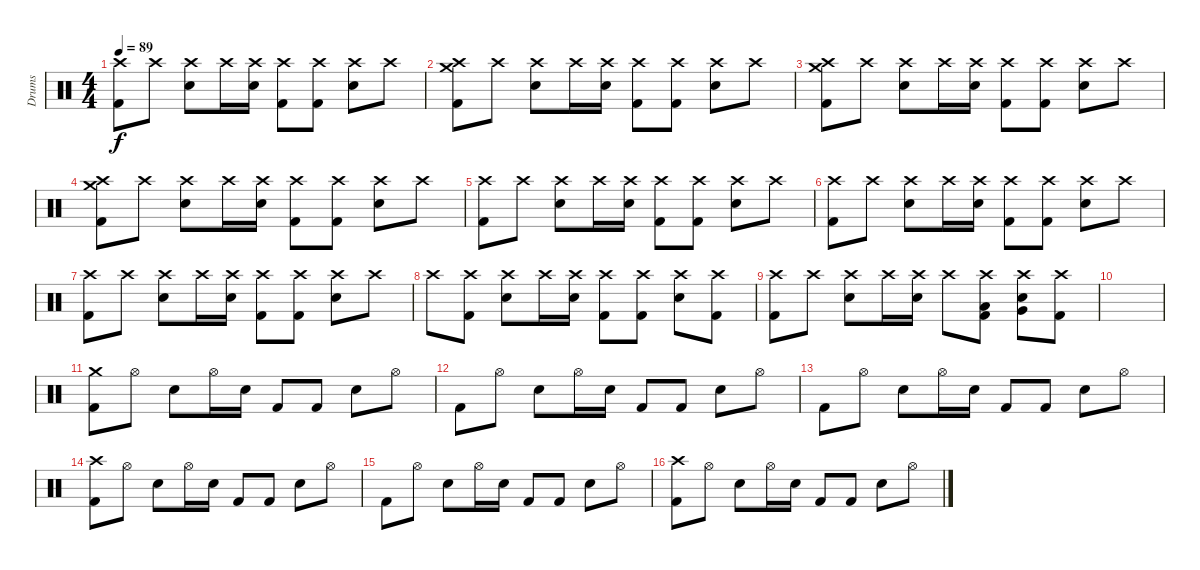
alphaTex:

\track ("Drums" "Drums") {instrument percussion}
\staff {score}
\articulation defaults
\ts (4 4)
\tempo 89
\clef neutral
\ks c
("Crash high (hit)" "Kick (hit) 2").8{dy f} "Crash high (hit)".8 ("Crash high (hit)" "Electric Snare (hit)").8 "Crash high (hit)".16 ("Crash high (hit)" "Electric Snare (hit)").16 ("Crash high (hit)" "Kick (hit) 2").8 ("Crash high (hit)" "Kick (hit) 2").8 ("Crash high (hit)" "Electric Snare (hit)").8 "Crash high (hit)".8 |
("Crash high (hit)" "Crash medium (hit)" "Kick (hit) 2").8 "Crash high (hit)".8 ("Crash high (hit)" "Electric Snare (hit)").8 "Crash high (hit)".16 ("Crash high (hit)" "Electric Snare (hit)").16 ("Crash high (hit)" "Kick (hit) 2").8 ("Crash high (hit)" "Kick (hit) 2").8 ("Crash high (hit)" "Electric Snare (hit)").8 "Crash high (hit)".8 |
("Crash high (hit)" "Crash medium (hit)" "Kick (hit) 2").8 "Crash high (hit)".8 ("Crash high (hit)" "Electric Snare (hit)").8 "Crash high (hit)".16 ("Crash high (hit)" "Electric Snare (hit)").16 ("Crash high (hit)" "Kick (hit) 2").8 ("Crash high (hit)" "Kick (hit) 2").8 ("Crash high (hit)" "Electric Snare (hit)").8 "Crash high (hit)".8 |
("Crash high (hit)" "Crash medium (hit)" "Kick (hit) 2").8 "Crash high (hit)".8 ("Crash high (hit)" "Electric Snare (hit)").8 "Crash high (hit)".16 ("Crash high (hit)" "Electric Snare (hit)").16 ("Crash high (hit)" "Kick (hit) 2").8 ("Crash high (hit)" "Kick (hit) 2").8 ("Crash high (hit)" "Electric Snare (hit)").8 "Crash high (hit)".8 |
("Crash high (hit)" "Kick (hit) 2").8 "Crash high (hit)".8 ("Crash high (hit)" "Electric Snare (hit)").8 "Crash high (hit)".16 ("Crash high (hit)" "Electric Snare (hit)").16 ("Crash high (hit)" "Kick (hit) 2").8 ("Crash high (hit)" "Kick (hit) 2").8 ("Crash high (hit)" "Electric Snare (hit)").8 "Crash high (hit)".8 |
("Crash high (hit)" "Kick (hit) 2").8 "Crash high (hit)".8 ("Crash high (hit)" "Electric Snare (hit)").8 "Crash high (hit)".16 ("Crash high (hit)" "Electric Snare (hit)").16 ("Crash high (hit)" "Kick (hit) 2").8 ("Crash high (hit)" "Kick (hit) 2").8 ("Crash high (hit)" "Electric Snare (hit)").8 "Crash high (hit)".8 |
("Crash high (hit)" "Kick (hit) 2").8 "Crash high (hit)".8 ("Crash high (hit)" "Electric Snare (hit)").8 "Crash high (hit)".16 ("Crash high (hit)" "Electric Snare (hit)").16 ("Crash high (hit)" "Kick (hit) 2").8 ("Crash high (hit)" "Kick (hit) 2").8 ("Crash high (hit)" "Electric Snare (hit)").8 "Crash high (hit)".8 |
"Crash high (hit)".8 ("Crash high (hit)" "Kick (hit) 2").8 ("Crash high (hit)" "Electric Snare (hit)").8 "Crash high (hit)".16 ("Crash high (hit)" "Electric Snare (hit)").16 ("Crash high (hit)" "Kick (hit) 2").8 ("Crash high (hit)" "Kick (hit) 2").8 ("Crash high (hit)" "Electric Snare (hit)").8 ("Crash high (hit)" "Kick (hit) 2").8 |
("Crash high (hit)" "Kick (hit) 2").8 "Crash high (hit)".8 ("Crash high (hit)" "Electric Snare (hit)").8 "Crash high (hit)".16 ("Crash high (hit)" "Electric Snare (hit)").16 "Crash high (hit)".8 ("Crash high (hit)" "Low Tom (hit)" "Kick (hit) 2").8 ("Crash high (hit)" "Very Low Tom (hit)" "Electric Snare (hit)").8 ("Crash high (hit)" "Kick (hit) 2").8 |
|
("Crash medium (hit)" "Kick (hit) 2").8 "Hi-Hat (open)".8 "Electric Snare (hit)".8 "Hi-Hat (open)".16 "Electric Snare (hit)".16 "Kick (hit) 2".8 "Kick (hit) 2".8 "Electric Snare (hit)".8 "Hi-Hat (open)".8 |
"Kick (hit) 2".8 "Hi-Hat (open)".8 "Electric Snare (hit)".8 "Hi-Hat (open)".16 "Electric Snare (hit)".16 "Kick (hit) 2".8 "Kick (hit) 2".8 "Electric Snare (hit)".8 "Hi-Hat (open)".8 |
"Kick (hit) 2".8 "Hi-Hat (open)".8 "Electric Snare (hit)".8 "Hi-Hat (open)".16 "Electric Snare (hit)".16 "Kick (hit) 2".8 "Kick (hit) 2".8 "Electric Snare (hit)".8 "Hi-Hat (open)".8 |
("Crash high (hit)" "Kick (hit) 2").8 "Hi-Hat (open)".8 "Electric Snare (hit)".8 "Hi-Hat (open)".16 "Electric Snare (hit)".16 "Kick (hit) 2".8 "Kick (hit) 2".8 "Electric Snare (hit)".8 "Hi-Hat (open)".8 |
"Kick (hit) 2".8 "Hi-Hat (open)".8 "Electric Snare (hit)".8 "Hi-Hat (open)".16 "Electric Snare (hit)".16 "Kick (hit) 2".8 "Kick (hit) 2".8 "Electric Snare (hit)".8 "Hi-Hat (open)".8 |
("Crash high (hit)" "Kick (hit) 2").8 "Hi-Hat (open)".8 "Electric Snare (hit)".8 "Hi-Hat (open)".16 "Electric Snare (hit)".16 "Kick (hit) 2".8 "Kick (hit) 2".8 "Electric Snare (hit)".8 "Hi-Hat (open)".8
